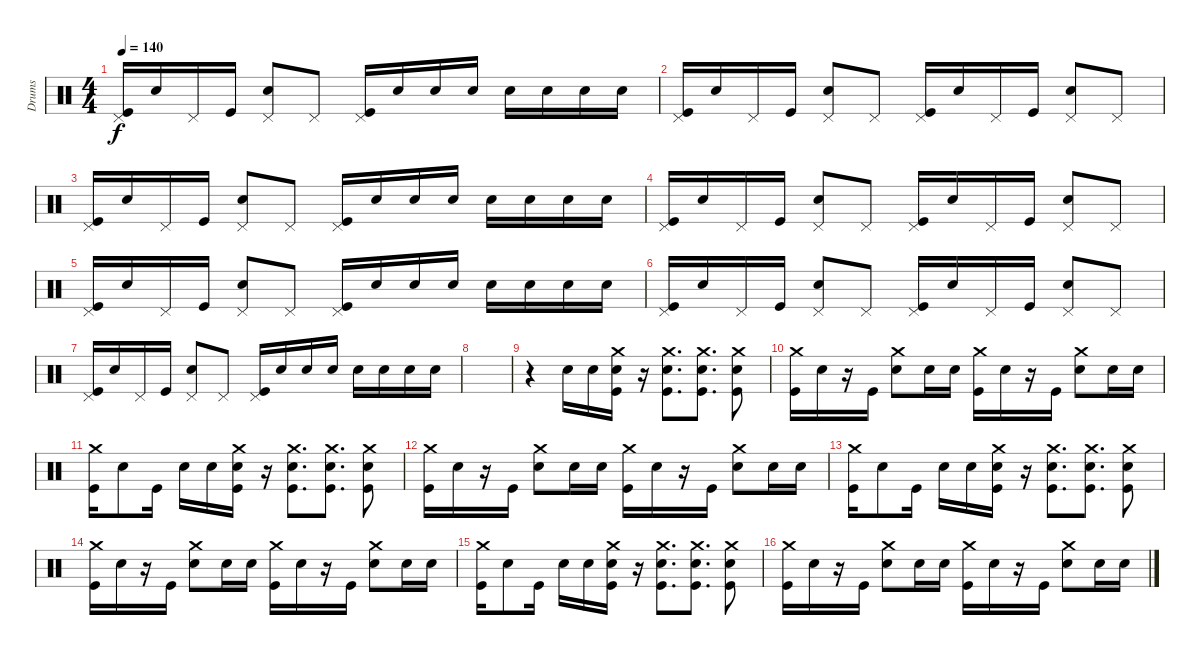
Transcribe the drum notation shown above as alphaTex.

\track ("Drums" "Drums") {instrument percussion}
\staff {score}
\articulation defaults
\ts (4 4)
\tempo 140
\clef neutral
\ks c
("Kick (hit)" "Pedal Hi-Hat (hit)").16{dy f} "Snare (hit) 2".16 "Pedal Hi-Hat (hit)".16 "Kick (hit)".16 ("Snare (hit) 2" "Pedal Hi-Hat (hit)").8 "Pedal Hi-Hat (hit)".8 ("Kick (hit)" "Pedal Hi-Hat (hit)").16 "Snare (hit) 2".16 "Snare (hit) 2".16 "Snare (hit) 2".16 "Snare (hit) 2".16 "Snare (hit) 2".16 "Snare (hit) 2".16 "Snare (hit) 2".16 |
("Kick (hit)" "Pedal Hi-Hat (hit)").16 "Snare (hit) 2".16 "Pedal Hi-Hat (hit)".16 "Kick (hit)".16 ("Snare (hit) 2" "Pedal Hi-Hat (hit)").8 "Pedal Hi-Hat (hit)".8 ("Kick (hit)" "Pedal Hi-Hat (hit)").16 "Snare (hit) 2".16 "Pedal Hi-Hat (hit)".16 "Kick (hit)".16 ("Snare (hit) 2" "Pedal Hi-Hat (hit)").8 "Pedal Hi-Hat (hit)".8 |
("Kick (hit)" "Pedal Hi-Hat (hit)").16 "Snare (hit) 2".16 "Pedal Hi-Hat (hit)".16 "Kick (hit)".16 ("Snare (hit) 2" "Pedal Hi-Hat (hit)").8 "Pedal Hi-Hat (hit)".8 ("Kick (hit)" "Pedal Hi-Hat (hit)").16 "Snare (hit) 2".16 "Snare (hit) 2".16 "Snare (hit) 2".16 "Snare (hit) 2".16 "Snare (hit) 2".16 "Snare (hit) 2".16 "Snare (hit) 2".16 |
("Kick (hit)" "Pedal Hi-Hat (hit)").16 "Snare (hit) 2".16 "Pedal Hi-Hat (hit)".16 "Kick (hit)".16 ("Snare (hit) 2" "Pedal Hi-Hat (hit)").8 "Pedal Hi-Hat (hit)".8 ("Kick (hit)" "Pedal Hi-Hat (hit)").16 "Snare (hit) 2".16 "Pedal Hi-Hat (hit)".16 "Kick (hit)".16 ("Snare (hit) 2" "Pedal Hi-Hat (hit)").8 "Pedal Hi-Hat (hit)".8 |
("Kick (hit)" "Pedal Hi-Hat (hit)").16 "Snare (hit) 2".16 "Pedal Hi-Hat (hit)".16 "Kick (hit)".16 ("Snare (hit) 2" "Pedal Hi-Hat (hit)").8 "Pedal Hi-Hat (hit)".8 ("Kick (hit)" "Pedal Hi-Hat (hit)").16 "Snare (hit) 2".16 "Snare (hit) 2".16 "Snare (hit) 2".16 "Snare (hit) 2".16 "Snare (hit) 2".16 "Snare (hit) 2".16 "Snare (hit) 2".16 |
("Kick (hit)" "Pedal Hi-Hat (hit)").16 "Snare (hit) 2".16 "Pedal Hi-Hat (hit)".16 "Kick (hit)".16 ("Snare (hit) 2" "Pedal Hi-Hat (hit)").8 "Pedal Hi-Hat (hit)".8 ("Kick (hit)" "Pedal Hi-Hat (hit)").16 "Snare (hit) 2".16 "Pedal Hi-Hat (hit)".16 "Kick (hit)".16 ("Snare (hit) 2" "Pedal Hi-Hat (hit)").8 "Pedal Hi-Hat (hit)".8 |
("Kick (hit)" "Pedal Hi-Hat (hit)").16 "Snare (hit) 2".16 "Pedal Hi-Hat (hit)".16 "Kick (hit)".16 ("Snare (hit) 2" "Pedal Hi-Hat (hit)").8 "Pedal Hi-Hat (hit)".8 ("Kick (hit)" "Pedal Hi-Hat (hit)").16 "Snare (hit) 2".16 "Snare (hit) 2".16 "Snare (hit) 2".16 "Snare (hit) 2".16 "Snare (hit) 2".16 "Snare (hit) 2".16 "Snare (hit) 2".16 |
|
r.4 "Snare (hit) 2".16 "Snare (hit) 2".16 ("Kick (hit)" "Snare (hit) 2" "Crash medium (hit)").16 r.16 ("Kick (hit)" "Snare (hit) 2" "Crash medium (hit)").8{d} ("Kick (hit)" "Snare (hit) 2" "Crash medium (hit)").8{d} ("Kick (hit)" "Snare (hit) 2" "Crash medium (hit)").8 |
("Kick (hit)" "Crash medium (hit)").16 "Snare (hit) 2".16 r.16 "Kick (hit)".16 ("Snare (hit) 2" "Crash medium (hit)").8 "Snare (hit) 2".16 "Snare (hit) 2".16 ("Kick (hit)" "Crash medium (hit)").16 "Snare (hit) 2".16 r.16 "Kick (hit)".16 ("Snare (hit) 2" "Crash medium (hit)").8 "Snare (hit) 2".16 "Snare (hit) 2".16 |
("Kick (hit)" "Crash medium (hit)").16 "Snare (hit) 2".8 "Kick (hit)".16 "Snare (hit) 2".16 "Snare (hit) 2".16 ("Kick (hit)" "Snare (hit) 2" "Crash medium (hit)").16 r.16 ("Kick (hit)" "Snare (hit) 2" "Crash medium (hit)").8{d} ("Kick (hit)" "Snare (hit) 2" "Crash medium (hit)").8{d} ("Kick (hit)" "Snare (hit) 2" "Crash medium (hit)").8 |
("Kick (hit)" "Crash medium (hit)").16 "Snare (hit) 2".16 r.16 "Kick (hit)".16 ("Snare (hit) 2" "Crash medium (hit)").8 "Snare (hit) 2".16 "Snare (hit) 2".16 ("Kick (hit)" "Crash medium (hit)").16 "Snare (hit) 2".16 r.16 "Kick (hit)".16 ("Snare (hit) 2" "Crash medium (hit)").8 "Snare (hit) 2".16 "Snare (hit) 2".16 |
("Kick (hit)" "Crash medium (hit)").16 "Snare (hit) 2".8 "Kick (hit)".16 "Snare (hit) 2".16 "Snare (hit) 2".16 ("Kick (hit)" "Snare (hit) 2" "Crash medium (hit)").16 r.16 ("Kick (hit)" "Snare (hit) 2" "Crash medium (hit)").8{d} ("Kick (hit)" "Snare (hit) 2" "Crash medium (hit)").8{d} ("Kick (hit)" "Snare (hit) 2" "Crash medium (hit)").8 |
("Kick (hit)" "Crash medium (hit)").16 "Snare (hit) 2".16 r.16 "Kick (hit)".16 ("Snare (hit) 2" "Crash medium (hit)").8 "Snare (hit) 2".16 "Snare (hit) 2".16 ("Kick (hit)" "Crash medium (hit)").16 "Snare (hit) 2".16 r.16 "Kick (hit)".16 ("Snare (hit) 2" "Crash medium (hit)").8 "Snare (hit) 2".16 "Snare (hit) 2".16 |
("Kick (hit)" "Crash medium (hit)").16 "Snare (hit) 2".8 "Kick (hit)".16 "Snare (hit) 2".16 "Snare (hit) 2".16 ("Kick (hit)" "Snare (hit) 2" "Crash medium (hit)").16 r.16 ("Kick (hit)" "Snare (hit) 2" "Crash medium (hit)").8{d} ("Kick (hit)" "Snare (hit) 2" "Crash medium (hit)").8{d} ("Kick (hit)" "Snare (hit) 2" "Crash medium (hit)").8 |
("Kick (hit)" "Crash medium (hit)").16 "Snare (hit) 2".16 r.16 "Kick (hit)".16 ("Snare (hit) 2" "Crash medium (hit)").8 "Snare (hit) 2".16 "Snare (hit) 2".16 ("Kick (hit)" "Crash medium (hit)").16 "Snare (hit) 2".16 r.16 "Kick (hit)".16 ("Snare (hit) 2" "Crash medium (hit)").8 "Snare (hit) 2".16 "Snare (hit) 2".16
